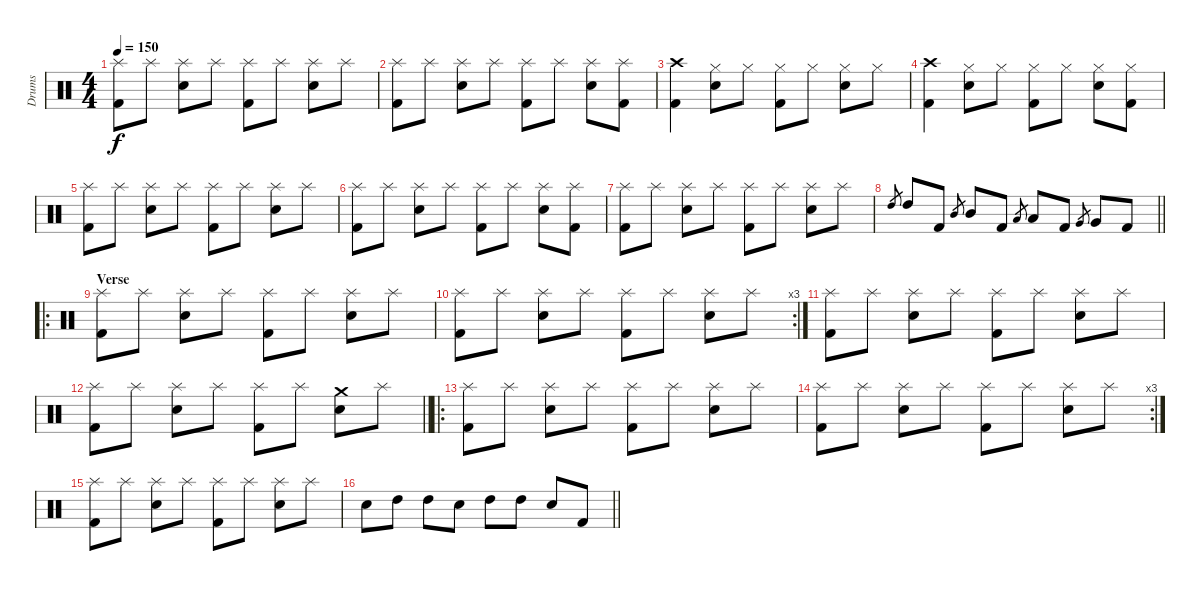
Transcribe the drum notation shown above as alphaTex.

\track ("Drums" "Drums") {instrument percussion}
\staff {score}
\articulation defaults
\ts (4 4)
\tempo 150
\clef neutral
\ks c
("Splash (hit)" "Kick (hit) 2").8{dy f} "Splash (hit)".8 ("Splash (hit)" "Snare (hit) 2").8 "Splash (hit)".8 ("Splash (hit)" "Kick (hit) 2").8 "Splash (hit)".8 ("Splash (hit)" "Snare (hit) 2").8 "Splash (hit)".8 |
("Splash (hit)" "Kick (hit) 2").8 "Splash (hit)".8 ("Splash (hit)" "Snare (hit) 2").8 "Splash (hit)".8 ("Splash (hit)" "Kick (hit) 2").8 "Splash (hit)".8 ("Splash (hit)" "Snare (hit) 2").8 ("Splash (hit)" "Kick (hit) 2").8 |
("Crash high (hit)" "Kick (hit) 2").4 ("Hi-Hat (closed)" "Snare (hit) 2").8 "Hi-Hat (closed)".8 ("Hi-Hat (closed)" "Kick (hit) 2").8 "Hi-Hat (closed)".8 ("Hi-Hat (closed)" "Snare (hit) 2").8 "Hi-Hat (closed)".8 |
("Crash high (hit)" "Kick (hit) 2").4 ("Hi-Hat (closed)" "Snare (hit) 2").8 "Hi-Hat (closed)".8 ("Hi-Hat (closed)" "Kick (hit) 2").8 "Hi-Hat (closed)".8 ("Hi-Hat (closed)" "Snare (hit) 2").8 ("Hi-Hat (closed)" "Kick (hit) 2").8 |
("Splash (hit)" "Kick (hit) 2").8 "Splash (hit)".8 ("Splash (hit)" "Snare (hit) 2").8 "Splash (hit)".8 ("Splash (hit)" "Kick (hit) 2").8 "Splash (hit)".8 ("Splash (hit)" "Snare (hit) 2").8 "Splash (hit)".8 |
("Splash (hit)" "Kick (hit) 2").8 "Splash (hit)".8 ("Splash (hit)" "Snare (hit) 2").8 "Splash (hit)".8 ("Splash (hit)" "Kick (hit) 2").8 "Splash (hit)".8 ("Splash (hit)" "Snare (hit) 2").8 ("Splash (hit)" "Kick (hit) 2").8 |
("Splash (hit)" "Kick (hit) 2").8 "Splash (hit)".8 ("Splash (hit)" "Snare (hit) 2").8 "Splash (hit)".8 ("Splash (hit)" "Kick (hit) 2").8 "Splash (hit)".8 ("Splash (hit)" "Snare (hit) 2").8 "Splash (hit)".8 |
\barLineRight lightlight "High Tom (hit)".8{gr} "High Tom (hit)".8 "Kick (hit) 2".8 "Mid Tom (hit)".8{gr} "Mid Tom (hit)".8 "Kick (hit) 2".8 "Low Tom (hit)".8{gr} "Low Tom (hit)".8 "Kick (hit) 2".8 "Very Low Tom (hit)".8{gr} "Very Low Tom (hit)".8 "Kick (hit) 2".8
|
\ro
\section ("" "Verse")
("Splash (hit)" "Kick (hit) 2").8 "Splash (hit)".8 ("Splash (hit)" "Snare (hit) 2").8 "Splash (hit)".8 ("Splash (hit)" "Kick (hit) 2").8 "Splash (hit)".8 ("Splash (hit)" "Snare (hit) 2").8 "Splash (hit)".8 |
\rc 3
("Splash (hit)" "Kick (hit) 2").8 "Splash (hit)".8 ("Splash (hit)" "Snare (hit) 2").8 "Splash (hit)".8 ("Splash (hit)" "Kick (hit) 2").8 "Splash (hit)".8 ("Splash (hit)" "Snare (hit) 2").8 "Splash (hit)".8 |
("Splash (hit)" "Kick (hit) 2").8 "Splash (hit)".8 ("Splash (hit)" "Snare (hit) 2").8 "Splash (hit)".8 ("Splash (hit)" "Kick (hit) 2").8 "Splash (hit)".8 ("Splash (hit)" "Snare (hit) 2").8 "Splash (hit)".8 |
\barLineRight lightlight
("Splash (hit)" "Kick (hit) 2").8 "Splash (hit)".8 ("Splash (hit)" "Snare (hit) 2").8 "Splash (hit)".8 ("Splash (hit)" "Kick (hit) 2").8 "Splash (hit)".8 ("Crash medium (hit)" "Snare (hit) 2").8 "Splash (hit)".8 |
\ro
("Splash (hit)" "Kick (hit) 2").8 "Splash (hit)".8 ("Splash (hit)" "Snare (hit) 2").8 "Splash (hit)".8 ("Splash (hit)" "Kick (hit) 2").8 "Splash (hit)".8 ("Splash (hit)" "Snare (hit) 2").8 "Splash (hit)".8 |
\rc 3
("Splash (hit)" "Kick (hit) 2").8 "Splash (hit)".8 ("Splash (hit)" "Snare (hit) 2").8 "Splash (hit)".8 ("Splash (hit)" "Kick (hit) 2").8 "Splash (hit)".8 ("Splash (hit)" "Snare (hit) 2").8 "Splash (hit)".8 |
("Splash (hit)" "Kick (hit) 2").8 "Splash (hit)".8 ("Splash (hit)" "Snare (hit) 2").8 "Splash (hit)".8 ("Splash (hit)" "Kick (hit) 2").8 "Splash (hit)".8 ("Splash (hit)" "Snare (hit) 2").8 "Splash (hit)".8 |
\barLineRight lightlight "Electric Snare (hit)".8 "High Tom (hit)".8 "High Tom (hit)".8 "Electric Snare (hit)".8 "High Tom (hit)".8 "High Tom (hit)".8 "Snare (hit) 2".8 "Kick (hit) 2".8
